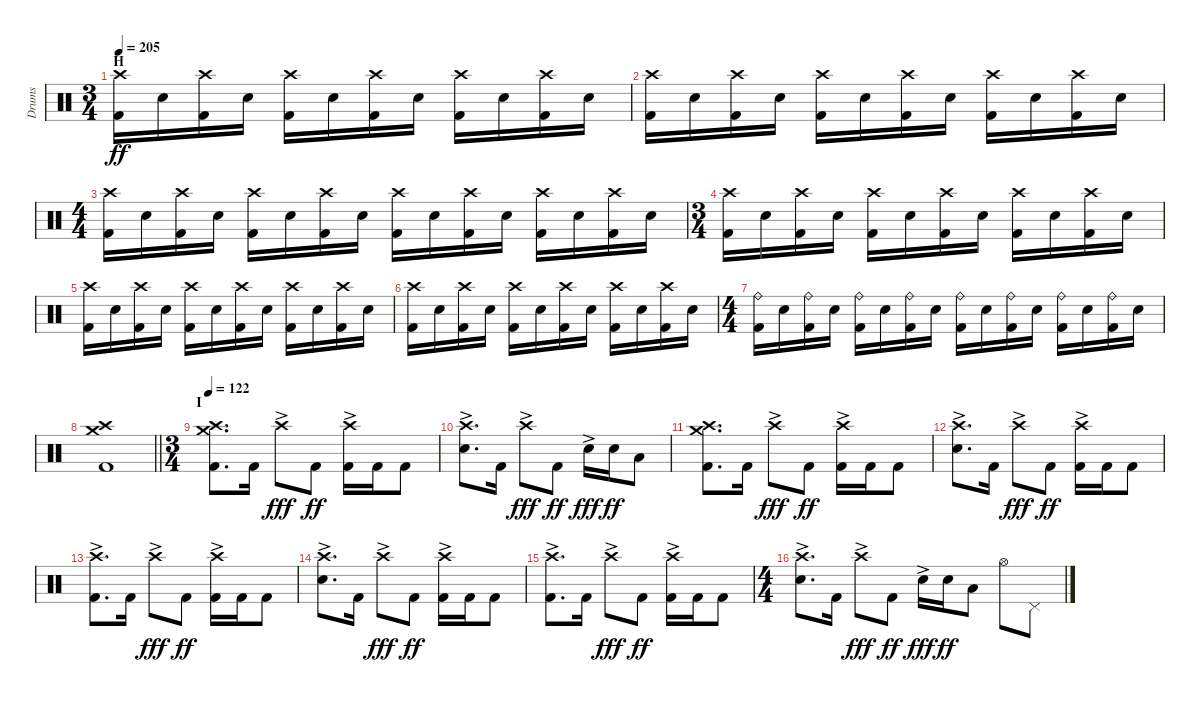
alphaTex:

\track ("Drums" "Drums") {instrument percussion}
\staff {score}
\articulation defaults
\ts (3 4)
\section ("" "H")
\tempo 205
\clef neutral
\ks c
("Crash high (hit)" "Kick (hit) 2").16{dy ff volume 12} "Electric Snare (hit)".16 ("Crash high (hit)" "Kick (hit) 2").16 "Electric Snare (hit)".16 ("Crash high (hit)" "Kick (hit) 2").16 "Electric Snare (hit)".16 ("Crash high (hit)" "Kick (hit) 2").16 "Electric Snare (hit)".16 ("Crash high (hit)" "Kick (hit) 2").16 "Electric Snare (hit)".16 ("Crash high (hit)" "Kick (hit) 2").16 "Electric Snare (hit)".16 |
("Crash high (hit)" "Kick (hit) 2").16 "Electric Snare (hit)".16 ("Crash high (hit)" "Kick (hit) 2").16 "Electric Snare (hit)".16 ("Crash high (hit)" "Kick (hit) 2").16 "Electric Snare (hit)".16 ("Crash high (hit)" "Kick (hit) 2").16 "Electric Snare (hit)".16 ("Crash high (hit)" "Kick (hit) 2").16 "Electric Snare (hit)".16 ("Crash high (hit)" "Kick (hit) 2").16 "Electric Snare (hit)".16 |
\ts (4 4)
("Crash high (hit)" "Kick (hit) 2").16 "Electric Snare (hit)".16 ("Crash high (hit)" "Kick (hit) 2").16 "Electric Snare (hit)".16 ("Crash high (hit)" "Kick (hit) 2").16 "Electric Snare (hit)".16 ("Crash high (hit)" "Kick (hit) 2").16 "Electric Snare (hit)".16 ("Crash high (hit)" "Kick (hit) 2").16 "Electric Snare (hit)".16 ("Crash high (hit)" "Kick (hit) 2").16 "Electric Snare (hit)".16 ("Crash high (hit)" "Kick (hit) 2").16 "Electric Snare (hit)".16 ("Crash high (hit)" "Kick (hit) 2").16 "Electric Snare (hit)".16 |
\ts (3 4)
("Crash high (hit)" "Kick (hit) 2").16 "Electric Snare (hit)".16 ("Crash high (hit)" "Kick (hit) 2").16 "Electric Snare (hit)".16 ("Crash high (hit)" "Kick (hit) 2").16 "Electric Snare (hit)".16 ("Crash high (hit)" "Kick (hit) 2").16 "Electric Snare (hit)".16 ("Crash high (hit)" "Kick (hit) 2").16 "Electric Snare (hit)".16 ("Crash high (hit)" "Kick (hit) 2").16 "Electric Snare (hit)".16 |
("Crash high (hit)" "Kick (hit) 2").16 "Electric Snare (hit)".16 ("Crash high (hit)" "Kick (hit) 2").16 "Electric Snare (hit)".16 ("Crash high (hit)" "Kick (hit) 2").16 "Electric Snare (hit)".16 ("Crash high (hit)" "Kick (hit) 2").16 "Electric Snare (hit)".16 ("Crash high (hit)" "Kick (hit) 2").16 "Electric Snare (hit)".16 ("Crash high (hit)" "Kick (hit) 2").16 "Electric Snare (hit)".16 |
("Crash high (hit)" "Kick (hit) 2").16 "Electric Snare (hit)".16 ("Crash high (hit)" "Kick (hit) 2").16 "Electric Snare (hit)".16 ("Crash high (hit)" "Kick (hit) 2").16 "Electric Snare (hit)".16 ("Crash high (hit)" "Kick (hit) 2").16 "Electric Snare (hit)".16 ("Crash high (hit)" "Kick (hit) 2").16 "Electric Snare (hit)".16 ("Crash high (hit)" "Kick (hit) 2").16 "Electric Snare (hit)".16 |
\ts (4 4)
("Ride (bell)" "Kick (hit) 2").16 "Electric Snare (hit)".16 ("Ride (bell)" "Kick (hit) 2").16 "Electric Snare (hit)".16 ("Ride (bell)" "Kick (hit) 2").16 "Electric Snare (hit)".16 ("Ride (bell)" "Kick (hit) 2").16 "Electric Snare (hit)".16 ("Ride (bell)" "Kick (hit) 2").16 "Electric Snare (hit)".16 ("Ride (bell)" "Kick (hit) 2").16 "Electric Snare (hit)".16 ("Ride (bell)" "Kick (hit) 2").16 "Electric Snare (hit)".16 ("Ride (bell)" "Kick (hit) 2").16 "Electric Snare (hit)".16 |
\barLineRight lightlight
("Crash medium (hit)" "Crash high (hit)" "Kick (hit) 2").1 |
\ts (3 4)
\section ("" "I")
\tempo 122
("Crash medium (hit)" "Crash high (hit)" "Kick (hit) 2").8{d volume 14} "Kick (hit) 2".16 "Crash high (hit)"{ac}.8{dy fff} "Kick (hit) 2".8{dy ff} ("Crash high (hit)"{ac} "Kick (hit) 2").16 "Kick (hit) 2".16 "Kick (hit) 2".8 |
("Crash high (hit)"{ac} "Electric Snare (hit)").8{d} "Kick (hit) 2".16 "Crash high (hit)"{ac}.8{dy fff} "Kick (hit) 2".8{dy ff} "Electric Snare (hit)"{ac}.16{dy fff} "Electric Snare (hit)".16{dy ff} "Low Tom (hit)".8 |
("Crash medium (hit)" "Crash high (hit)" "Kick (hit) 2").8{d} "Kick (hit) 2".16 "Crash high (hit)"{ac}.8{dy fff} "Kick (hit) 2".8{dy ff} ("Crash high (hit)"{ac} "Kick (hit) 2").16 "Kick (hit) 2".16 "Kick (hit) 2".8 |
("Crash high (hit)"{ac} "Electric Snare (hit)").8{d} "Kick (hit) 2".16 "Crash high (hit)"{ac}.8{dy fff} "Kick (hit) 2".8{dy ff} ("Crash high (hit)"{ac} "Kick (hit) 2").16 "Kick (hit) 2".16 "Kick (hit) 2".8 |
("Crash high (hit)"{ac} "Kick (hit) 2").8{d} "Kick (hit) 2".16 "Crash high (hit)"{ac}.8{dy fff} "Kick (hit) 2".8{dy ff} ("Crash high (hit)"{ac} "Kick (hit) 2").16 "Kick (hit) 2".16 "Kick (hit) 2".8 |
("Crash high (hit)"{ac} "Electric Snare (hit)").8{d} "Kick (hit) 2".16 "Crash high (hit)"{ac}.8{dy fff} "Kick (hit) 2".8{dy ff} ("Crash high (hit)"{ac} "Kick (hit) 2").16 "Kick (hit) 2".16 "Kick (hit) 2".8 |
("Crash high (hit)"{ac} "Kick (hit) 2").8{d} "Kick (hit) 2".16 "Crash high (hit)"{ac}.8{dy fff} "Kick (hit) 2".8{dy ff} ("Crash high (hit)"{ac} "Kick (hit) 2").16 "Kick (hit) 2".16 "Kick (hit) 2".8 |
\ts (4 4)
("Crash high (hit)"{ac} "Electric Snare (hit)").8{d} "Kick (hit) 2".16 "Crash high (hit)"{ac}.8{dy fff} "Kick (hit) 2".8{dy ff} "Electric Snare (hit)"{ac}.16{dy fff} "Electric Snare (hit)".16{dy ff} "Low Tom (hit)".8 "Hi-Hat (open)".8 "Pedal Hi-Hat (hit)".8
